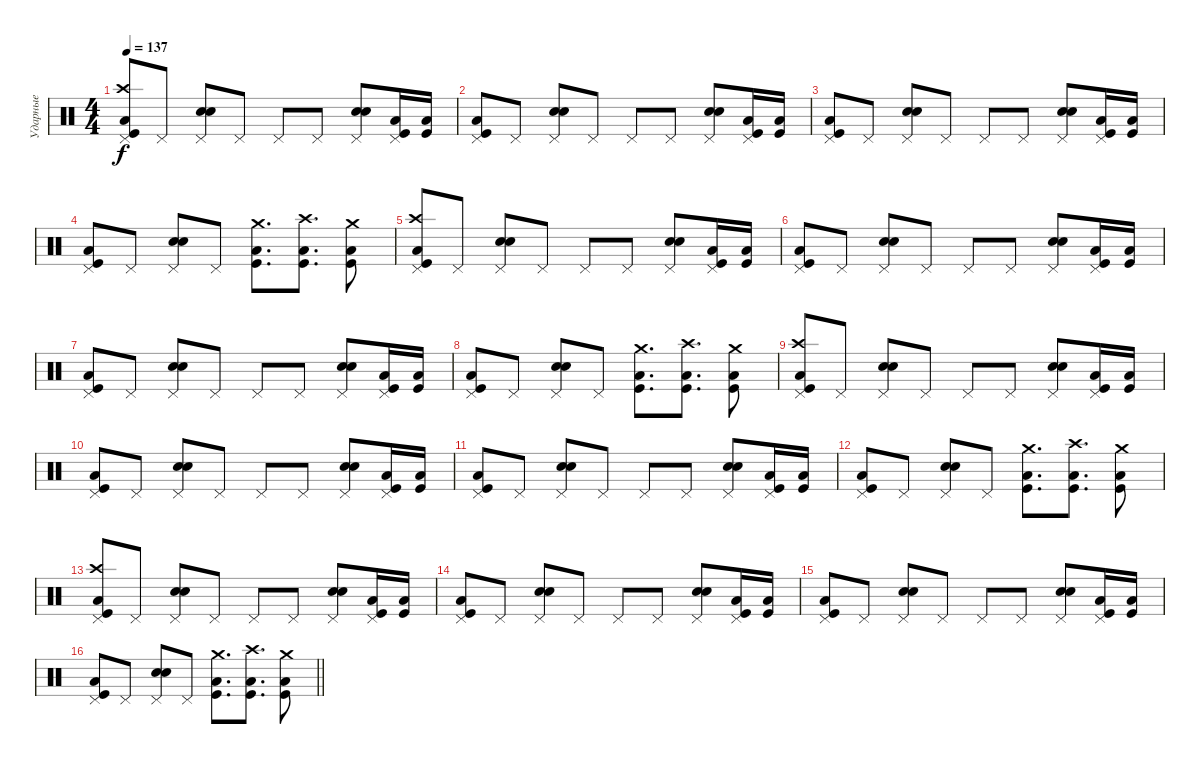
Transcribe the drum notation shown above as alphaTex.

\track ("Ударные" "Ударные") {instrument percussion}
\staff {score}
\articulation defaults
\ts (4 4)
\tempo 137
\clef neutral
\ks c
("Pedal Hi-Hat (hit)" "Crash high (hit)" "Kick (hit)" "Low Tom (hit)").8{dy f} "Pedal Hi-Hat (hit)".8 ("Pedal Hi-Hat (hit)" "Electric Snare (hit)" "Snare (hit) 2").8 "Pedal Hi-Hat (hit)".8 "Pedal Hi-Hat (hit)".8 "Pedal Hi-Hat (hit)".8 ("Pedal Hi-Hat (hit)" "Electric Snare (hit)" "Snare (hit) 2").8 ("Pedal Hi-Hat (hit)" "Kick (hit)" "Low Tom (hit)").16 ("Kick (hit)" "Low Tom (hit)").16 |
("Pedal Hi-Hat (hit)" "Kick (hit)" "Low Tom (hit)").8 "Pedal Hi-Hat (hit)".8 ("Pedal Hi-Hat (hit)" "Electric Snare (hit)" "Snare (hit) 2").8 "Pedal Hi-Hat (hit)".8 "Pedal Hi-Hat (hit)".8 "Pedal Hi-Hat (hit)".8 ("Pedal Hi-Hat (hit)" "Electric Snare (hit)" "Snare (hit) 2").8 ("Pedal Hi-Hat (hit)" "Kick (hit)" "Low Tom (hit)").16 ("Kick (hit)" "Low Tom (hit)").16 |
("Pedal Hi-Hat (hit)" "Kick (hit)" "Low Tom (hit)").8 "Pedal Hi-Hat (hit)".8 ("Pedal Hi-Hat (hit)" "Electric Snare (hit)" "Snare (hit) 2").8 "Pedal Hi-Hat (hit)".8 "Pedal Hi-Hat (hit)".8 "Pedal Hi-Hat (hit)".8 ("Pedal Hi-Hat (hit)" "Electric Snare (hit)" "Snare (hit) 2").8 ("Pedal Hi-Hat (hit)" "Kick (hit)" "Low Tom (hit)").16 ("Kick (hit)" "Low Tom (hit)").16 |
("Pedal Hi-Hat (hit)" "Kick (hit)" "Low Tom (hit)").8 "Pedal Hi-Hat (hit)".8 ("Pedal Hi-Hat (hit)" "Electric Snare (hit)" "Snare (hit) 2").8 "Pedal Hi-Hat (hit)".8 ("Crash medium (hit)" "Low Tom (hit)" "Kick (hit)").8{d} ("Crash high (hit)" "Low Tom (hit)" "Kick (hit)").8{d} ("Crash medium (hit)" "Low Tom (hit)" "Kick (hit)").8 |
("Pedal Hi-Hat (hit)" "Crash high (hit)" "Kick (hit)" "Low Tom (hit)").8 "Pedal Hi-Hat (hit)".8 ("Pedal Hi-Hat (hit)" "Electric Snare (hit)" "Snare (hit) 2").8 "Pedal Hi-Hat (hit)".8 "Pedal Hi-Hat (hit)".8 "Pedal Hi-Hat (hit)".8 ("Pedal Hi-Hat (hit)" "Electric Snare (hit)" "Snare (hit) 2").8 ("Pedal Hi-Hat (hit)" "Kick (hit)" "Low Tom (hit)").16 ("Kick (hit)" "Low Tom (hit)").16 |
("Pedal Hi-Hat (hit)" "Kick (hit)" "Low Tom (hit)").8 "Pedal Hi-Hat (hit)".8 ("Pedal Hi-Hat (hit)" "Electric Snare (hit)" "Snare (hit) 2").8 "Pedal Hi-Hat (hit)".8 "Pedal Hi-Hat (hit)".8 "Pedal Hi-Hat (hit)".8 ("Pedal Hi-Hat (hit)" "Electric Snare (hit)" "Snare (hit) 2").8 ("Pedal Hi-Hat (hit)" "Kick (hit)" "Low Tom (hit)").16 ("Kick (hit)" "Low Tom (hit)").16 |
("Pedal Hi-Hat (hit)" "Kick (hit)" "Low Tom (hit)").8 "Pedal Hi-Hat (hit)".8 ("Pedal Hi-Hat (hit)" "Electric Snare (hit)" "Snare (hit) 2").8 "Pedal Hi-Hat (hit)".8 "Pedal Hi-Hat (hit)".8 "Pedal Hi-Hat (hit)".8 ("Pedal Hi-Hat (hit)" "Electric Snare (hit)" "Snare (hit) 2").8 ("Pedal Hi-Hat (hit)" "Kick (hit)" "Low Tom (hit)").16 ("Kick (hit)" "Low Tom (hit)").16 |
("Pedal Hi-Hat (hit)" "Kick (hit)" "Low Tom (hit)").8 "Pedal Hi-Hat (hit)".8 ("Pedal Hi-Hat (hit)" "Electric Snare (hit)" "Snare (hit) 2").8 "Pedal Hi-Hat (hit)".8 ("Crash medium (hit)" "Low Tom (hit)" "Kick (hit)").8{d} ("Crash high (hit)" "Low Tom (hit)" "Kick (hit)").8{d} ("Crash medium (hit)" "Low Tom (hit)" "Kick (hit)").8 |
("Pedal Hi-Hat (hit)" "Crash high (hit)" "Kick (hit)" "Low Tom (hit)").8 "Pedal Hi-Hat (hit)".8 ("Pedal Hi-Hat (hit)" "Electric Snare (hit)" "Snare (hit) 2").8 "Pedal Hi-Hat (hit)".8 "Pedal Hi-Hat (hit)".8 "Pedal Hi-Hat (hit)".8 ("Pedal Hi-Hat (hit)" "Electric Snare (hit)" "Snare (hit) 2").8 ("Pedal Hi-Hat (hit)" "Kick (hit)" "Low Tom (hit)").16 ("Kick (hit)" "Low Tom (hit)").16 |
("Pedal Hi-Hat (hit)" "Kick (hit)" "Low Tom (hit)").8 "Pedal Hi-Hat (hit)".8 ("Pedal Hi-Hat (hit)" "Electric Snare (hit)" "Snare (hit) 2").8 "Pedal Hi-Hat (hit)".8 "Pedal Hi-Hat (hit)".8 "Pedal Hi-Hat (hit)".8 ("Pedal Hi-Hat (hit)" "Electric Snare (hit)" "Snare (hit) 2").8 ("Pedal Hi-Hat (hit)" "Kick (hit)" "Low Tom (hit)").16 ("Kick (hit)" "Low Tom (hit)").16 |
("Pedal Hi-Hat (hit)" "Kick (hit)" "Low Tom (hit)").8 "Pedal Hi-Hat (hit)".8 ("Pedal Hi-Hat (hit)" "Electric Snare (hit)" "Snare (hit) 2").8 "Pedal Hi-Hat (hit)".8 "Pedal Hi-Hat (hit)".8 "Pedal Hi-Hat (hit)".8 ("Pedal Hi-Hat (hit)" "Electric Snare (hit)" "Snare (hit) 2").8 ("Pedal Hi-Hat (hit)" "Kick (hit)" "Low Tom (hit)").16 ("Kick (hit)" "Low Tom (hit)").16 |
("Pedal Hi-Hat (hit)" "Kick (hit)" "Low Tom (hit)").8 "Pedal Hi-Hat (hit)".8 ("Pedal Hi-Hat (hit)" "Electric Snare (hit)" "Snare (hit) 2").8 "Pedal Hi-Hat (hit)".8 ("Crash medium (hit)" "Low Tom (hit)" "Kick (hit)").8{d} ("Crash high (hit)" "Low Tom (hit)" "Kick (hit)").8{d} ("Crash medium (hit)" "Low Tom (hit)" "Kick (hit)").8 |
("Pedal Hi-Hat (hit)" "Crash high (hit)" "Kick (hit)" "Low Tom (hit)").8 "Pedal Hi-Hat (hit)".8 ("Pedal Hi-Hat (hit)" "Electric Snare (hit)" "Snare (hit) 2").8 "Pedal Hi-Hat (hit)".8 "Pedal Hi-Hat (hit)".8 "Pedal Hi-Hat (hit)".8 ("Pedal Hi-Hat (hit)" "Electric Snare (hit)" "Snare (hit) 2").8 ("Pedal Hi-Hat (hit)" "Kick (hit)" "Low Tom (hit)").16 ("Kick (hit)" "Low Tom (hit)").16 |
("Pedal Hi-Hat (hit)" "Kick (hit)" "Low Tom (hit)").8 "Pedal Hi-Hat (hit)".8 ("Pedal Hi-Hat (hit)" "Electric Snare (hit)" "Snare (hit) 2").8 "Pedal Hi-Hat (hit)".8 "Pedal Hi-Hat (hit)".8 "Pedal Hi-Hat (hit)".8 ("Pedal Hi-Hat (hit)" "Electric Snare (hit)" "Snare (hit) 2").8 ("Pedal Hi-Hat (hit)" "Kick (hit)" "Low Tom (hit)").16 ("Kick (hit)" "Low Tom (hit)").16 |
("Pedal Hi-Hat (hit)" "Kick (hit)" "Low Tom (hit)").8 "Pedal Hi-Hat (hit)".8 ("Pedal Hi-Hat (hit)" "Electric Snare (hit)" "Snare (hit) 2").8 "Pedal Hi-Hat (hit)".8 "Pedal Hi-Hat (hit)".8 "Pedal Hi-Hat (hit)".8 ("Pedal Hi-Hat (hit)" "Electric Snare (hit)" "Snare (hit) 2").8 ("Pedal Hi-Hat (hit)" "Kick (hit)" "Low Tom (hit)").16 ("Kick (hit)" "Low Tom (hit)").16 |
\barLineRight lightlight
("Pedal Hi-Hat (hit)" "Kick (hit)" "Low Tom (hit)").8 "Pedal Hi-Hat (hit)".8 ("Pedal Hi-Hat (hit)" "Electric Snare (hit)" "Snare (hit) 2").8 "Pedal Hi-Hat (hit)".8 ("Crash medium (hit)" "Low Tom (hit)" "Kick (hit)").8{d} ("Crash high (hit)" "Low Tom (hit)" "Kick (hit)").8{d} ("Crash medium (hit)" "Low Tom (hit)" "Kick (hit)").8
